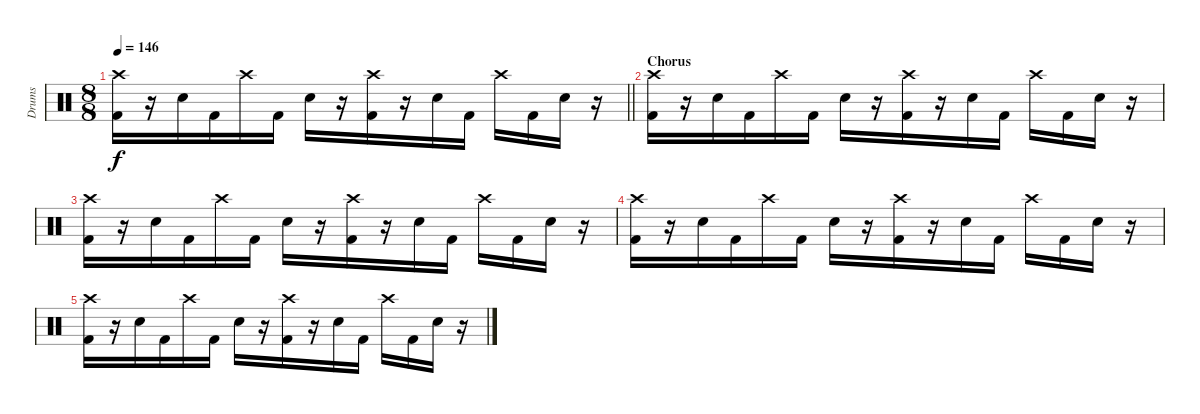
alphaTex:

\track ("Drums" "Drums") {instrument percussion}
\staff {score}
\articulation defaults
\ts (8 8)
\tempo 146
\clef neutral
\barLineRight lightlight
\ks c
("Crash high (hit)" "Kick (hit) 2").16{dy f} r.16 "Snare (hit) 2".16 "Kick (hit) 2".16 "Crash high (hit)".16 "Kick (hit) 2".16 "Snare (hit) 2".16 r.16 ("Crash high (hit)" "Kick (hit) 2").16 r.16 "Snare (hit) 2".16 "Kick (hit) 2".16 "Crash high (hit)".16 "Kick (hit) 2".16 "Snare (hit) 2".16 r.16 |
\section ("" "Chorus")
("Crash high (hit)" "Kick (hit) 2").16 r.16 "Snare (hit) 2".16 "Kick (hit) 2".16 "Crash high (hit)".16 "Kick (hit) 2".16 "Snare (hit) 2".16 r.16 ("Crash high (hit)" "Kick (hit) 2").16 r.16 "Snare (hit) 2".16 "Kick (hit) 2".16 "Crash high (hit)".16 "Kick (hit) 2".16 "Snare (hit) 2".16 r.16 |
("Crash high (hit)" "Kick (hit) 2").16 r.16 "Snare (hit) 2".16 "Kick (hit) 2".16 "Crash high (hit)".16 "Kick (hit) 2".16 "Snare (hit) 2".16 r.16 ("Crash high (hit)" "Kick (hit) 2").16 r.16 "Snare (hit) 2".16 "Kick (hit) 2".16 "Crash high (hit)".16 "Kick (hit) 2".16 "Snare (hit) 2".16 r.16 |
("Crash high (hit)" "Kick (hit) 2").16 r.16 "Snare (hit) 2".16 "Kick (hit) 2".16 "Crash high (hit)".16 "Kick (hit) 2".16 "Snare (hit) 2".16 r.16 ("Crash high (hit)" "Kick (hit) 2").16 r.16 "Snare (hit) 2".16 "Kick (hit) 2".16 "Crash high (hit)".16 "Kick (hit) 2".16 "Snare (hit) 2".16 r.16 |
("Crash high (hit)" "Kick (hit) 2").16 r.16 "Snare (hit) 2".16 "Kick (hit) 2".16 "Crash high (hit)".16 "Kick (hit) 2".16 "Snare (hit) 2".16 r.16 ("Crash high (hit)" "Kick (hit) 2").16 r.16 "Snare (hit) 2".16 "Kick (hit) 2".16 "Crash high (hit)".16 "Kick (hit) 2".16 "Snare (hit) 2".16 r.16
